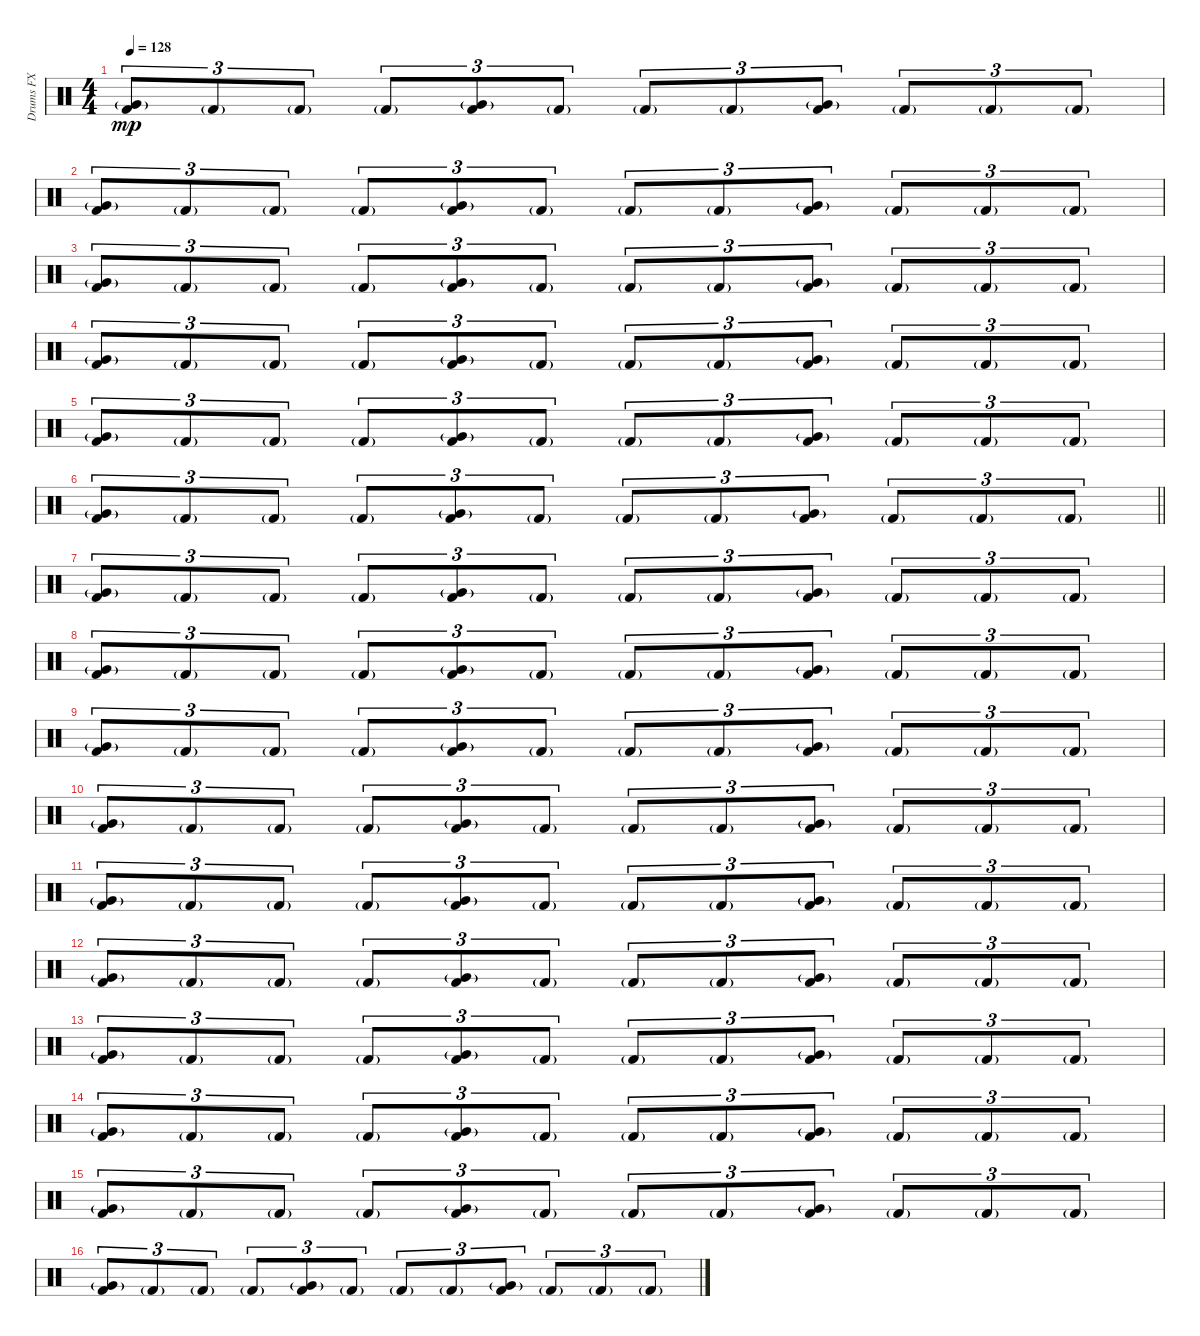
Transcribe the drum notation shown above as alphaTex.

\track ("Drums FX" "Drums FX") {instrument percussion}
\staff {score}
\articulation defaults
\ts (4 4)
\tempo 128
\clef neutral
\ks c
("Very Low Tom (hit)"{g} "Kick (hit) 2").8{tu (3 2) dy mp} "Kick (hit) 2"{g}.8{tu (3 2)} "Kick (hit) 2"{g}.8{tu (3 2)} "Kick (hit) 2"{g}.8{tu (3 2)} ("Very Low Tom (hit)"{g} "Kick (hit) 2").8{tu (3 2)} "Kick (hit) 2"{g}.8{tu (3 2)} "Kick (hit) 2"{g}.8{tu (3 2)} "Kick (hit) 2"{g}.8{tu (3 2)} ("Very Low Tom (hit)"{g} "Kick (hit) 2").8{tu (3 2)} "Kick (hit) 2"{g}.8{tu (3 2)} "Kick (hit) 2"{g}.8{tu (3 2)} "Kick (hit) 2"{g}.8{tu (3 2)} |
("Very Low Tom (hit)"{g} "Kick (hit) 2").8{tu (3 2)} "Kick (hit) 2"{g}.8{tu (3 2)} "Kick (hit) 2"{g}.8{tu (3 2)} "Kick (hit) 2"{g}.8{tu (3 2)} ("Very Low Tom (hit)"{g} "Kick (hit) 2").8{tu (3 2)} "Kick (hit) 2"{g}.8{tu (3 2)} "Kick (hit) 2"{g}.8{tu (3 2)} "Kick (hit) 2"{g}.8{tu (3 2)} ("Very Low Tom (hit)"{g} "Kick (hit) 2").8{tu (3 2)} "Kick (hit) 2"{g}.8{tu (3 2)} "Kick (hit) 2"{g}.8{tu (3 2)} "Kick (hit) 2"{g}.8{tu (3 2)} |
("Very Low Tom (hit)"{g} "Kick (hit) 2").8{tu (3 2)} "Kick (hit) 2"{g}.8{tu (3 2)} "Kick (hit) 2"{g}.8{tu (3 2)} "Kick (hit) 2"{g}.8{tu (3 2)} ("Very Low Tom (hit)"{g} "Kick (hit) 2").8{tu (3 2)} "Kick (hit) 2"{g}.8{tu (3 2)} "Kick (hit) 2"{g}.8{tu (3 2)} "Kick (hit) 2"{g}.8{tu (3 2)} ("Very Low Tom (hit)"{g} "Kick (hit) 2").8{tu (3 2)} "Kick (hit) 2"{g}.8{tu (3 2)} "Kick (hit) 2"{g}.8{tu (3 2)} "Kick (hit) 2"{g}.8{tu (3 2)} |
("Very Low Tom (hit)"{g} "Kick (hit) 2").8{tu (3 2)} "Kick (hit) 2"{g}.8{tu (3 2)} "Kick (hit) 2"{g}.8{tu (3 2)} "Kick (hit) 2"{g}.8{tu (3 2)} ("Very Low Tom (hit)"{g} "Kick (hit) 2").8{tu (3 2)} "Kick (hit) 2"{g}.8{tu (3 2)} "Kick (hit) 2"{g}.8{tu (3 2)} "Kick (hit) 2"{g}.8{tu (3 2)} ("Very Low Tom (hit)"{g} "Kick (hit) 2").8{tu (3 2)} "Kick (hit) 2"{g}.8{tu (3 2)} "Kick (hit) 2"{g}.8{tu (3 2)} "Kick (hit) 2"{g}.8{tu (3 2)} |
("Very Low Tom (hit)"{g} "Kick (hit) 2").8{tu (3 2)} "Kick (hit) 2"{g}.8{tu (3 2)} "Kick (hit) 2"{g}.8{tu (3 2)} "Kick (hit) 2"{g}.8{tu (3 2)} ("Very Low Tom (hit)"{g} "Kick (hit) 2").8{tu (3 2)} "Kick (hit) 2"{g}.8{tu (3 2)} "Kick (hit) 2"{g}.8{tu (3 2)} "Kick (hit) 2"{g}.8{tu (3 2)} ("Very Low Tom (hit)"{g} "Kick (hit) 2").8{tu (3 2)} "Kick (hit) 2"{g}.8{tu (3 2)} "Kick (hit) 2"{g}.8{tu (3 2)} "Kick (hit) 2"{g}.8{tu (3 2)} |
\barLineRight lightlight
("Very Low Tom (hit)"{g} "Kick (hit) 2").8{tu (3 2)} "Kick (hit) 2"{g}.8{tu (3 2)} "Kick (hit) 2"{g}.8{tu (3 2)} "Kick (hit) 2"{g}.8{tu (3 2)} ("Very Low Tom (hit)"{g} "Kick (hit) 2").8{tu (3 2)} "Kick (hit) 2"{g}.8{tu (3 2)} "Kick (hit) 2"{g}.8{tu (3 2)} "Kick (hit) 2"{g}.8{tu (3 2)} ("Very Low Tom (hit)"{g} "Kick (hit) 2").8{tu (3 2)} "Kick (hit) 2"{g}.8{tu (3 2)} "Kick (hit) 2"{g}.8{tu (3 2)} "Kick (hit) 2"{g}.8{tu (3 2)} |
\section ("" "")
("Very Low Tom (hit)"{g} "Kick (hit) 2").8{tu (3 2)} "Kick (hit) 2"{g}.8{tu (3 2)} "Kick (hit) 2"{g}.8{tu (3 2)} "Kick (hit) 2"{g}.8{tu (3 2)} ("Very Low Tom (hit)"{g} "Kick (hit) 2").8{tu (3 2)} "Kick (hit) 2"{g}.8{tu (3 2)} "Kick (hit) 2"{g}.8{tu (3 2)} "Kick (hit) 2"{g}.8{tu (3 2)} ("Very Low Tom (hit)"{g} "Kick (hit) 2").8{tu (3 2)} "Kick (hit) 2"{g}.8{tu (3 2)} "Kick (hit) 2"{g}.8{tu (3 2)} "Kick (hit) 2"{g}.8{tu (3 2)} |
("Very Low Tom (hit)"{g} "Kick (hit) 2").8{tu (3 2)} "Kick (hit) 2"{g}.8{tu (3 2)} "Kick (hit) 2"{g}.8{tu (3 2)} "Kick (hit) 2"{g}.8{tu (3 2)} ("Very Low Tom (hit)"{g} "Kick (hit) 2").8{tu (3 2)} "Kick (hit) 2"{g}.8{tu (3 2)} "Kick (hit) 2"{g}.8{tu (3 2)} "Kick (hit) 2"{g}.8{tu (3 2)} ("Very Low Tom (hit)"{g} "Kick (hit) 2").8{tu (3 2)} "Kick (hit) 2"{g}.8{tu (3 2)} "Kick (hit) 2"{g}.8{tu (3 2)} "Kick (hit) 2"{g}.8{tu (3 2)} |
("Very Low Tom (hit)"{g} "Kick (hit) 2").8{tu (3 2)} "Kick (hit) 2"{g}.8{tu (3 2)} "Kick (hit) 2"{g}.8{tu (3 2)} "Kick (hit) 2"{g}.8{tu (3 2)} ("Very Low Tom (hit)"{g} "Kick (hit) 2").8{tu (3 2)} "Kick (hit) 2"{g}.8{tu (3 2)} "Kick (hit) 2"{g}.8{tu (3 2)} "Kick (hit) 2"{g}.8{tu (3 2)} ("Very Low Tom (hit)"{g} "Kick (hit) 2").8{tu (3 2)} "Kick (hit) 2"{g}.8{tu (3 2)} "Kick (hit) 2"{g}.8{tu (3 2)} "Kick (hit) 2"{g}.8{tu (3 2)} |
("Very Low Tom (hit)"{g} "Kick (hit) 2").8{tu (3 2)} "Kick (hit) 2"{g}.8{tu (3 2)} "Kick (hit) 2"{g}.8{tu (3 2)} "Kick (hit) 2"{g}.8{tu (3 2)} ("Very Low Tom (hit)"{g} "Kick (hit) 2").8{tu (3 2)} "Kick (hit) 2"{g}.8{tu (3 2)} "Kick (hit) 2"{g}.8{tu (3 2)} "Kick (hit) 2"{g}.8{tu (3 2)} ("Very Low Tom (hit)"{g} "Kick (hit) 2").8{tu (3 2)} "Kick (hit) 2"{g}.8{tu (3 2)} "Kick (hit) 2"{g}.8{tu (3 2)} "Kick (hit) 2"{g}.8{tu (3 2)} |
("Very Low Tom (hit)"{g} "Kick (hit) 2").8{tu (3 2)} "Kick (hit) 2"{g}.8{tu (3 2)} "Kick (hit) 2"{g}.8{tu (3 2)} "Kick (hit) 2"{g}.8{tu (3 2)} ("Very Low Tom (hit)"{g} "Kick (hit) 2").8{tu (3 2)} "Kick (hit) 2"{g}.8{tu (3 2)} "Kick (hit) 2"{g}.8{tu (3 2)} "Kick (hit) 2"{g}.8{tu (3 2)} ("Very Low Tom (hit)"{g} "Kick (hit) 2").8{tu (3 2)} "Kick (hit) 2"{g}.8{tu (3 2)} "Kick (hit) 2"{g}.8{tu (3 2)} "Kick (hit) 2"{g}.8{tu (3 2)} |
("Very Low Tom (hit)"{g} "Kick (hit) 2").8{tu (3 2)} "Kick (hit) 2"{g}.8{tu (3 2)} "Kick (hit) 2"{g}.8{tu (3 2)} "Kick (hit) 2"{g}.8{tu (3 2)} ("Very Low Tom (hit)"{g} "Kick (hit) 2").8{tu (3 2)} "Kick (hit) 2"{g}.8{tu (3 2)} "Kick (hit) 2"{g}.8{tu (3 2)} "Kick (hit) 2"{g}.8{tu (3 2)} ("Very Low Tom (hit)"{g} "Kick (hit) 2").8{tu (3 2)} "Kick (hit) 2"{g}.8{tu (3 2)} "Kick (hit) 2"{g}.8{tu (3 2)} "Kick (hit) 2"{g}.8{tu (3 2)} |
("Very Low Tom (hit)"{g} "Kick (hit) 2").8{tu (3 2)} "Kick (hit) 2"{g}.8{tu (3 2)} "Kick (hit) 2"{g}.8{tu (3 2)} "Kick (hit) 2"{g}.8{tu (3 2)} ("Very Low Tom (hit)"{g} "Kick (hit) 2").8{tu (3 2)} "Kick (hit) 2"{g}.8{tu (3 2)} "Kick (hit) 2"{g}.8{tu (3 2)} "Kick (hit) 2"{g}.8{tu (3 2)} ("Very Low Tom (hit)"{g} "Kick (hit) 2").8{tu (3 2)} "Kick (hit) 2"{g}.8{tu (3 2)} "Kick (hit) 2"{g}.8{tu (3 2)} "Kick (hit) 2"{g}.8{tu (3 2)} |
("Very Low Tom (hit)"{g} "Kick (hit) 2").8{tu (3 2)} "Kick (hit) 2"{g}.8{tu (3 2)} "Kick (hit) 2"{g}.8{tu (3 2)} "Kick (hit) 2"{g}.8{tu (3 2)} ("Very Low Tom (hit)"{g} "Kick (hit) 2").8{tu (3 2)} "Kick (hit) 2"{g}.8{tu (3 2)} "Kick (hit) 2"{g}.8{tu (3 2)} "Kick (hit) 2"{g}.8{tu (3 2)} ("Very Low Tom (hit)"{g} "Kick (hit) 2").8{tu (3 2)} "Kick (hit) 2"{g}.8{tu (3 2)} "Kick (hit) 2"{g}.8{tu (3 2)} "Kick (hit) 2"{g}.8{tu (3 2)} |
("Very Low Tom (hit)"{g} "Kick (hit) 2").8{tu (3 2)} "Kick (hit) 2"{g}.8{tu (3 2)} "Kick (hit) 2"{g}.8{tu (3 2)} "Kick (hit) 2"{g}.8{tu (3 2)} ("Very Low Tom (hit)"{g} "Kick (hit) 2").8{tu (3 2)} "Kick (hit) 2"{g}.8{tu (3 2)} "Kick (hit) 2"{g}.8{tu (3 2)} "Kick (hit) 2"{g}.8{tu (3 2)} ("Very Low Tom (hit)"{g} "Kick (hit) 2").8{tu (3 2)} "Kick (hit) 2"{g}.8{tu (3 2)} "Kick (hit) 2"{g}.8{tu (3 2)} "Kick (hit) 2"{g}.8{tu (3 2)} |
("Very Low Tom (hit)"{g} "Kick (hit) 2").8{tu (3 2)} "Kick (hit) 2"{g}.8{tu (3 2)} "Kick (hit) 2"{g}.8{tu (3 2)} "Kick (hit) 2"{g}.8{tu (3 2)} ("Very Low Tom (hit)"{g} "Kick (hit) 2").8{tu (3 2)} "Kick (hit) 2"{g}.8{tu (3 2)} "Kick (hit) 2"{g}.8{tu (3 2)} "Kick (hit) 2"{g}.8{tu (3 2)} ("Very Low Tom (hit)"{g} "Kick (hit) 2").8{tu (3 2)} "Kick (hit) 2"{g}.8{tu (3 2)} "Kick (hit) 2"{g}.8{tu (3 2)} "Kick (hit) 2"{g}.8{tu (3 2)}
